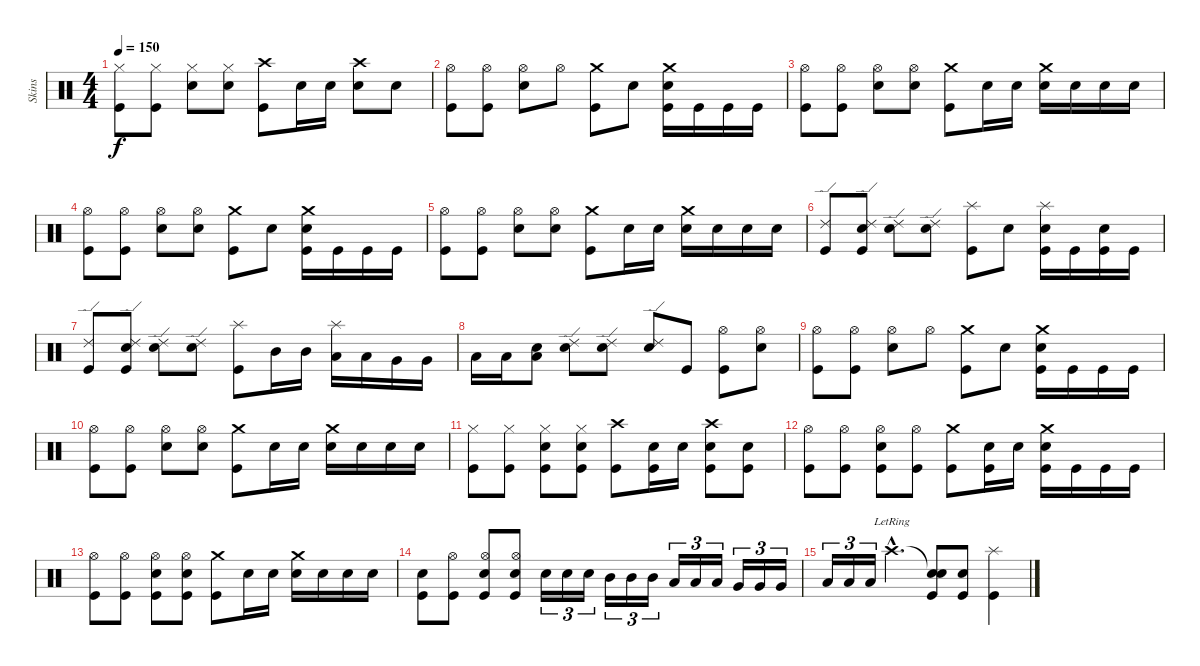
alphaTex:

\track ("Skins" "Skins") {instrument percussion}
\staff {score}
\articulation defaults
\ts (4 4)
\tempo 150
\clef neutral
\ks c
("Hi-Hat (closed)" "Kick (hit)").8{dy f} ("Hi-Hat (closed)" "Kick (hit)").8 ("Hi-Hat (closed)" "Electric Snare (hit)").8 ("Hi-Hat (closed)" "Electric Snare (hit)").8 ("Crash high (hit)" "Kick (hit)").8 "Electric Snare (hit)".16 "Electric Snare (hit)".16 ("Crash high (hit)" "Electric Snare (hit)").8 "Electric Snare (hit)".8 |
("Hi-Hat (open)" "Kick (hit)").8 ("Hi-Hat (open)" "Kick (hit)").8 ("Hi-Hat (open)" "Electric Snare (hit)").8 "Hi-Hat (open)".8 ("Crash medium (hit)" "Kick (hit)").8 "Electric Snare (hit)".8 ("Crash medium (hit)" "Electric Snare (hit)" "Kick (hit)").16 "Kick (hit)".16 "Kick (hit)".16 "Kick (hit)".16 |
("Hi-Hat (open)" "Kick (hit)").8 ("Hi-Hat (open)" "Kick (hit)").8 ("Hi-Hat (open)" "Electric Snare (hit)").8 ("Hi-Hat (open)" "Electric Snare (hit)").8 ("Crash medium (hit)" "Kick (hit)").8 "Snare (hit) 2".16 "Snare (hit) 2".16 ("Crash medium (hit)" "Snare (hit) 2").16 "Snare (hit) 2".16 "Snare (hit) 2".16 "Snare (hit) 2".16 |
("Hi-Hat (open)" "Kick (hit)").8 ("Hi-Hat (open)" "Kick (hit)").8 ("Hi-Hat (open)" "Electric Snare (hit)").8 ("Hi-Hat (open)" "Electric Snare (hit)").8 ("Crash medium (hit)" "Kick (hit)").8 "Electric Snare (hit)".8 ("Crash medium (hit)" "Electric Snare (hit)" "Kick (hit)").16 "Kick (hit)".16 "Kick (hit)".16 "Kick (hit)".16 |
("Hi-Hat (open)" "Kick (hit)").8 ("Hi-Hat (open)" "Kick (hit)").8 ("Hi-Hat (open)" "Electric Snare (hit)").8 ("Hi-Hat (open)" "Electric Snare (hit)").8 ("Crash medium (hit)" "Kick (hit)").8 "Snare (hit) 2".16 "Snare (hit) 2".16 ("Crash medium (hit)" "Snare (hit) 2").16 "Snare (hit) 2".16 "Snare (hit) 2".16 "Snare (hit) 2".16 |
("Ride (edge) 2" "Kick (hit)").8 ("Ride (edge) 2" "Electric Snare (hit)" "Kick (hit)").8 ("Ride (edge) 2" "Electric Snare (hit)").8 ("Ride (edge) 2" "Electric Snare (hit)").8 ("Splash (hit)" "Kick (hit)").8 "Electric Snare (hit)".8 ("Splash (hit)" "Electric Snare (hit)" "Kick (hit)").16 "Kick (hit)".16 ("Electric Snare (hit)" "Kick (hit)").16 "Kick (hit)".16 |
("Ride (edge) 2" "Kick (hit)").8 ("Ride (edge) 2" "Electric Snare (hit)" "Kick (hit)").8 ("Ride (edge) 2" "Electric Snare (hit)").8 ("Ride (edge) 2" "Electric Snare (hit)").8 ("Splash (hit)" "Kick (hit)").8 "Mid Tom (hit)".16 "Mid Tom (hit)".16 ("Splash (hit)" "Low Tom (hit)").16 "Low Tom (hit)".16 "Very Low Tom (hit)".16 "Very Low Tom (hit)".16 |
"Low Floor Tom (hit)".16 "Low Floor Tom (hit)".16 ("Electric Snare (hit)" "Low Floor Tom (hit)").8 ("Ride (edge) 2" "Electric Snare (hit)").8 ("Ride (edge) 2" "Electric Snare (hit)").8 ("Ride (edge) 2" "Electric Snare (hit)").8 "Kick (hit)".8 ("Hi-Hat (open)" "Kick (hit)").8 ("Hi-Hat (open)" "Electric Snare (hit)").8 |
("Hi-Hat (open)" "Kick (hit)").8 ("Hi-Hat (open)" "Kick (hit)").8 ("Hi-Hat (open)" "Electric Snare (hit)").8 "Hi-Hat (open)".8 ("Crash medium (hit)" "Kick (hit)").8 "Electric Snare (hit)".8 ("Crash medium (hit)" "Electric Snare (hit)" "Kick (hit)").16 "Kick (hit)".16 "Kick (hit)".16 "Kick (hit)".16 |
("Hi-Hat (open)" "Kick (hit)").8 ("Hi-Hat (open)" "Kick (hit)").8 ("Hi-Hat (open)" "Electric Snare (hit)").8 ("Hi-Hat (open)" "Electric Snare (hit)").8 ("Crash medium (hit)" "Kick (hit)").8 "Snare (hit) 2".16 "Snare (hit) 2".16 ("Crash medium (hit)" "Snare (hit) 2").16 "Snare (hit) 2".16 "Snare (hit) 2".16 "Snare (hit) 2".16 |
("Hi-Hat (closed)" "Kick (hit)").8 ("Hi-Hat (closed)" "Kick (hit)").8 ("Hi-Hat (closed)" "Electric Snare (hit)" "Kick (hit)").8 ("Hi-Hat (closed)" "Electric Snare (hit)" "Kick (hit)").8 ("Crash high (hit)" "Kick (hit)").8 ("Electric Snare (hit)" "Kick (hit)").16 "Electric Snare (hit)".16 ("Crash high (hit)" "Electric Snare (hit)" "Kick (hit)").8 ("Electric Snare (hit)" "Kick (hit)").8 |
("Hi-Hat (open)" "Kick (hit)").8 ("Hi-Hat (open)" "Kick (hit)").8 ("Hi-Hat (open)" "Electric Snare (hit)" "Kick (hit)").8 ("Hi-Hat (open)" "Kick (hit)").8 ("Crash medium (hit)" "Kick (hit)").8 ("Electric Snare (hit)" "Kick (hit)").16 "Electric Snare (hit)".16 ("Crash medium (hit)" "Electric Snare (hit)" "Kick (hit)").16 "Kick (hit)".16 "Kick (hit)".16 "Kick (hit)".16 |
("Hi-Hat (open)" "Kick (hit)").8 ("Hi-Hat (open)" "Kick (hit)").8 ("Hi-Hat (open)" "Electric Snare (hit)" "Kick (hit)").8 ("Hi-Hat (open)" "Electric Snare (hit)" "Kick (hit)").8 ("Crash medium (hit)" "Kick (hit)").8 "Snare (hit) 2".16 "Snare (hit) 2".16 ("Crash medium (hit)" "Snare (hit) 2").16 "Snare (hit) 2".16 "Snare (hit) 2".16 "Snare (hit) 2".16 |
("Snare (hit) 2" "Kick (hit)").8 ("Hi-Hat (open)" "Kick (hit)").8 ("Hi-Hat (open)" "Snare (hit) 2" "Kick (hit)").8 ("Hi-Hat (open)" "Snare (hit) 2" "Kick (hit)").8 "Electric Snare (hit)".16{tu (3 2) volume 6} "Electric Snare (hit)".16{tu (3 2) volume 7} "Electric Snare (hit)".16{tu (3 2) volume 8} "Mid Tom (hit)".16{tu (3 2) volume 9} "Mid Tom (hit)".16{tu (3 2) volume 10} "Mid Tom (hit)".16{tu (3 2)} "Low Tom (hit)".16{tu (3 2)} "Low Tom (hit)".16{tu (3 2)} "Low Tom (hit)".16{tu (3 2)} "Very Low Tom (hit)".16{tu (3 2)} "Very Low Tom (hit)".16{tu (3 2)} "Very Low Tom (hit)".16{tu (3 2)} |
"Low Floor Tom (hit)".16{tu (3 2)} "Low Floor Tom (hit)".16{tu (3 2)} "Low Floor Tom (hit)".16{tu (3 2)} "Crash high (hit)"{hac lr}.4{d} ("Snare (hit)"{t} "Electric Snare (hit)" "Kick (hit)").8 ("Electric Snare (hit)" "Kick (hit)").8 ("Splash (hit)" "Kick (hit)").4
